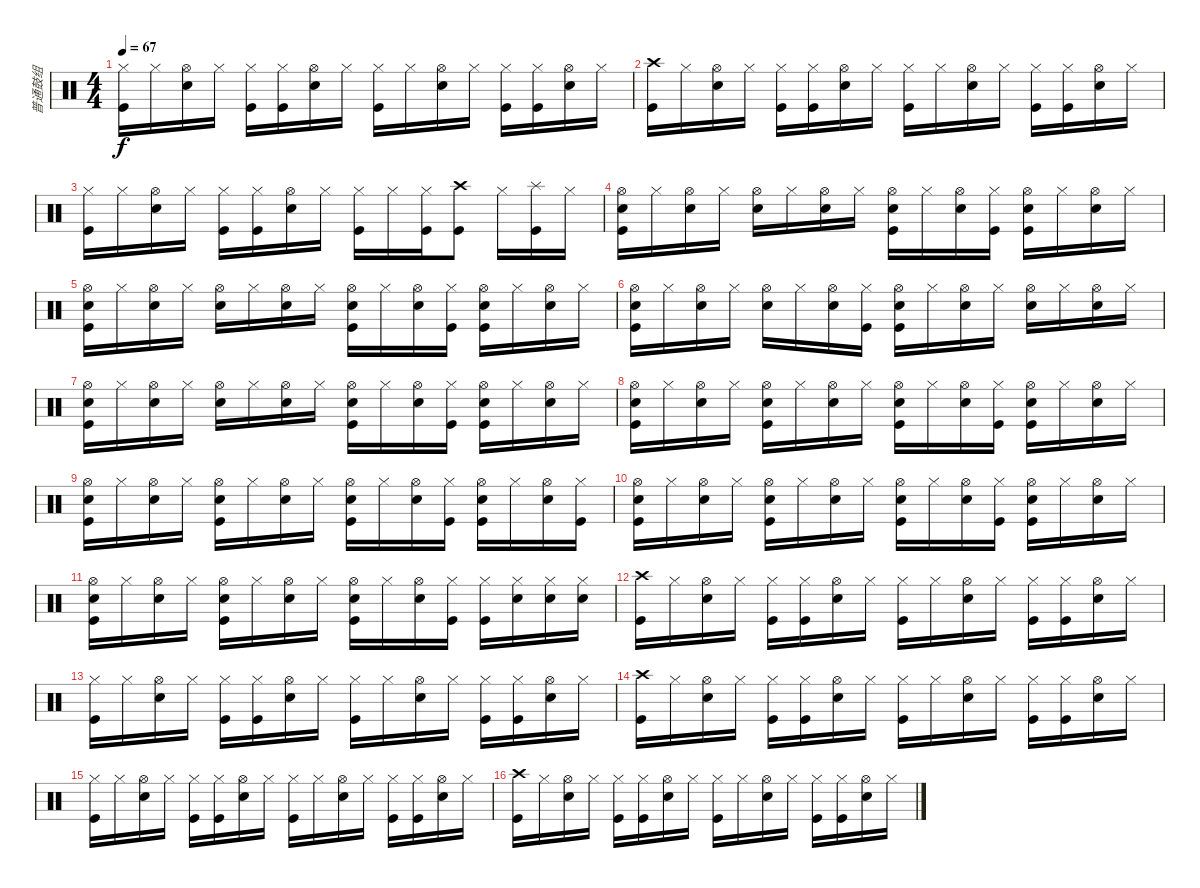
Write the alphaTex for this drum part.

\track ("普通鼓组" "普通鼓组") {instrument percussion}
\staff {score}
\articulation defaults
\ts (4 4)
\tempo 67
\clef neutral
\ks c
("Hi-Hat (closed)" "Kick (hit)").16{dy f} "Hi-Hat (closed)".16 ("Hi-Hat (open)" "Snare (hit) 2").16 "Hi-Hat (closed)".16 ("Hi-Hat (closed)" "Kick (hit)").16 ("Hi-Hat (closed)" "Kick (hit)").16 ("Hi-Hat (open)" "Snare (hit) 2").16 "Hi-Hat (closed)".16 ("Hi-Hat (closed)" "Kick (hit)").16 "Hi-Hat (closed)".16 ("Hi-Hat (open)" "Snare (hit) 2").16 "Hi-Hat (closed)".16 ("Hi-Hat (closed)" "Kick (hit)").16 ("Hi-Hat (closed)" "Kick (hit)").16 ("Hi-Hat (open)" "Snare (hit) 2").16 "Hi-Hat (closed)".16 |
("Crash high (hit)" "Kick (hit)").16 "Hi-Hat (closed)".16 ("Hi-Hat (open)" "Snare (hit) 2").16 "Hi-Hat (closed)".16 ("Hi-Hat (closed)" "Kick (hit)").16 ("Hi-Hat (closed)" "Kick (hit)").16 ("Hi-Hat (open)" "Snare (hit) 2").16 "Hi-Hat (closed)".16 ("Hi-Hat (closed)" "Kick (hit)").16 "Hi-Hat (closed)".16 ("Hi-Hat (open)" "Snare (hit) 2").16 "Hi-Hat (closed)".16 ("Hi-Hat (closed)" "Kick (hit)").16 ("Hi-Hat (closed)" "Kick (hit)").16 ("Hi-Hat (open)" "Snare (hit) 2").16 "Hi-Hat (closed)".16 |
("Hi-Hat (closed)" "Kick (hit)").16 "Hi-Hat (closed)".16 ("Hi-Hat (open)" "Snare (hit) 2").16 "Hi-Hat (closed)".16 ("Hi-Hat (closed)" "Kick (hit)").16 ("Hi-Hat (closed)" "Kick (hit)").16 ("Hi-Hat (open)" "Snare (hit) 2").16 "Hi-Hat (closed)".16 ("Hi-Hat (closed)" "Kick (hit)").16 "Hi-Hat (closed)".16 ("Hi-Hat (closed)" "Kick (hit)").16 ("Crash high (hit)" "Kick (hit)").8 "Hi-Hat (closed)".16 ("Splash (hit)" "Kick (hit)").16 "Hi-Hat (closed)".16 |
("Hi-Hat (open)" "Metronome (bell)" "Kick (hit)").16 "Hi-Hat (closed)".16 ("Hi-Hat (open)" "Metronome (bell)").16 "Hi-Hat (closed)".16 ("Hi-Hat (open)" "Metronome (bell)").16 "Hi-Hat (closed)".16 ("Hi-Hat (open)" "Metronome (bell)").16 "Hi-Hat (closed)".16 ("Hi-Hat (open)" "Metronome (bell)" "Kick (hit)").16 "Hi-Hat (closed)".16 ("Hi-Hat (open)" "Metronome (bell)").16 ("Hi-Hat (closed)" "Kick (hit)").16 ("Hi-Hat (open)" "Metronome (bell)" "Kick (hit)").16 "Hi-Hat (closed)".16 ("Hi-Hat (open)" "Metronome (bell)").16 "Hi-Hat (closed)".16 |
("Hi-Hat (open)" "Metronome (bell)" "Kick (hit)").16 "Hi-Hat (closed)".16 ("Hi-Hat (open)" "Metronome (bell)").16 "Hi-Hat (closed)".16 ("Hi-Hat (open)" "Metronome (bell)").16 "Hi-Hat (closed)".16 ("Hi-Hat (open)" "Metronome (bell)").16 "Hi-Hat (closed)".16 ("Hi-Hat (open)" "Metronome (bell)" "Kick (hit)").16 "Hi-Hat (closed)".16 ("Hi-Hat (open)" "Metronome (bell)").16 ("Hi-Hat (closed)" "Kick (hit)").16 ("Hi-Hat (open)" "Metronome (bell)" "Kick (hit)").16 "Hi-Hat (closed)".16 ("Hi-Hat (open)" "Metronome (bell)").16 "Hi-Hat (closed)".16 |
("Hi-Hat (open)" "Metronome (bell)" "Kick (hit)").16 "Hi-Hat (closed)".16 ("Hi-Hat (open)" "Metronome (bell)").16 "Hi-Hat (closed)".16 ("Hi-Hat (open)" "Metronome (bell)").16 "Hi-Hat (closed)".16 ("Hi-Hat (open)" "Metronome (bell)").16 ("Hi-Hat (closed)" "Kick (hit)").16 ("Hi-Hat (open)" "Metronome (bell)" "Kick (hit)").16 "Hi-Hat (closed)".16 ("Hi-Hat (open)" "Metronome (bell)").16 "Hi-Hat (closed)".16 ("Hi-Hat (open)" "Metronome (bell)").16 "Hi-Hat (closed)".16 ("Hi-Hat (open)" "Metronome (bell)").16 "Hi-Hat (closed)".16 |
("Hi-Hat (open)" "Metronome (bell)" "Kick (hit)").16 "Hi-Hat (closed)".16 ("Hi-Hat (open)" "Metronome (bell)").16 "Hi-Hat (closed)".16 ("Hi-Hat (open)" "Metronome (bell)").16 "Hi-Hat (closed)".16 ("Hi-Hat (open)" "Metronome (bell)").16 "Hi-Hat (closed)".16 ("Hi-Hat (open)" "Metronome (bell)" "Kick (hit)").16 "Hi-Hat (closed)".16 ("Hi-Hat (open)" "Metronome (bell)").16 ("Hi-Hat (closed)" "Kick (hit)").16 ("Hi-Hat (open)" "Metronome (bell)" "Kick (hit)").16 "Hi-Hat (closed)".16 ("Hi-Hat (open)" "Metronome (bell)").16 "Hi-Hat (closed)".16 |
("Hi-Hat (open)" "Metronome (bell)" "Kick (hit)").16 "Hi-Hat (closed)".16 ("Hi-Hat (open)" "Metronome (bell)").16 "Hi-Hat (closed)".16 ("Hi-Hat (open)" "Metronome (bell)" "Kick (hit)").16 "Hi-Hat (closed)".16 ("Hi-Hat (open)" "Metronome (bell)").16 "Hi-Hat (closed)".16 ("Hi-Hat (open)" "Metronome (bell)" "Kick (hit)").16 "Hi-Hat (closed)".16 ("Hi-Hat (open)" "Metronome (bell)").16 ("Hi-Hat (closed)" "Kick (hit)").16 ("Hi-Hat (open)" "Metronome (bell)" "Kick (hit)").16 "Hi-Hat (closed)".16 ("Hi-Hat (open)" "Metronome (bell)").16 "Hi-Hat (closed)".16 |
("Hi-Hat (open)" "Metronome (bell)" "Kick (hit)").16 "Hi-Hat (closed)".16 ("Hi-Hat (open)" "Metronome (bell)").16 "Hi-Hat (closed)".16 ("Hi-Hat (open)" "Metronome (bell)" "Kick (hit)").16 "Hi-Hat (closed)".16 ("Hi-Hat (open)" "Metronome (bell)").16 "Hi-Hat (closed)".16 ("Hi-Hat (open)" "Metronome (bell)" "Kick (hit)").16 "Hi-Hat (closed)".16 ("Hi-Hat (open)" "Metronome (bell)").16 ("Hi-Hat (closed)" "Kick (hit)").16 ("Hi-Hat (open)" "Metronome (bell)" "Kick (hit)").16 "Hi-Hat (closed)".16 ("Hi-Hat (open)" "Metronome (bell)").16 ("Hi-Hat (closed)" "Kick (hit)").16 |
("Hi-Hat (open)" "Metronome (bell)" "Kick (hit)").16 "Hi-Hat (closed)".16 ("Hi-Hat (open)" "Metronome (bell)").16 "Hi-Hat (closed)".16 ("Hi-Hat (open)" "Metronome (bell)" "Kick (hit)").16 "Hi-Hat (closed)".16 ("Hi-Hat (open)" "Metronome (bell)").16 "Hi-Hat (closed)".16 ("Hi-Hat (open)" "Metronome (bell)" "Kick (hit)").16 "Hi-Hat (closed)".16 ("Hi-Hat (open)" "Metronome (bell)").16 ("Hi-Hat (closed)" "Kick (hit)").16 ("Hi-Hat (open)" "Metronome (bell)" "Kick (hit)").16 "Hi-Hat (closed)".16 ("Hi-Hat (open)" "Metronome (bell)").16 "Hi-Hat (closed)".16 |
("Hi-Hat (open)" "Metronome (bell)" "Kick (hit)").16 "Hi-Hat (closed)".16 ("Hi-Hat (open)" "Metronome (bell)").16 "Hi-Hat (closed)".16 ("Hi-Hat (open)" "Metronome (bell)" "Kick (hit)").16 "Hi-Hat (closed)".16 ("Hi-Hat (open)" "Metronome (bell)").16 "Hi-Hat (closed)".16 ("Hi-Hat (open)" "Metronome (bell)" "Kick (hit)").16 "Hi-Hat (closed)".16 ("Hi-Hat (open)" "Metronome (bell)").16 ("Hi-Hat (closed)" "Kick (hit)").16 ("Hi-Hat (closed)" "Kick (hit)").16 ("Hi-Hat (closed)" "Snare (hit) 2").16 ("Hi-Hat (closed)" "Snare (hit) 2").16 ("Hi-Hat (closed)" "Snare (hit) 2").16 |
("Crash high (hit)" "Kick (hit)").16 "Hi-Hat (closed)".16 ("Hi-Hat (open)" "Snare (hit) 2").16 "Hi-Hat (closed)".16 ("Hi-Hat (closed)" "Kick (hit)").16 ("Hi-Hat (closed)" "Kick (hit)").16 ("Hi-Hat (open)" "Snare (hit) 2").16 "Hi-Hat (closed)".16 ("Hi-Hat (closed)" "Kick (hit)").16 "Hi-Hat (closed)".16 ("Hi-Hat (open)" "Snare (hit) 2").16 "Hi-Hat (closed)".16 ("Hi-Hat (closed)" "Kick (hit)").16 ("Hi-Hat (closed)" "Kick (hit)").16 ("Hi-Hat (open)" "Snare (hit) 2").16 "Hi-Hat (closed)".16 |
("Hi-Hat (closed)" "Kick (hit)").16 "Hi-Hat (closed)".16 ("Hi-Hat (open)" "Snare (hit) 2").16 "Hi-Hat (closed)".16 ("Hi-Hat (closed)" "Kick (hit)").16 ("Hi-Hat (closed)" "Kick (hit)").16 ("Hi-Hat (open)" "Snare (hit) 2").16 "Hi-Hat (closed)".16 ("Hi-Hat (closed)" "Kick (hit)").16 "Hi-Hat (closed)".16 ("Hi-Hat (open)" "Snare (hit) 2").16 "Hi-Hat (closed)".16 ("Hi-Hat (closed)" "Kick (hit)").16 ("Hi-Hat (closed)" "Kick (hit)").16 ("Hi-Hat (open)" "Snare (hit) 2").16 "Hi-Hat (closed)".16 |
("Crash high (hit)" "Kick (hit)").16 "Hi-Hat (closed)".16 ("Hi-Hat (open)" "Snare (hit) 2").16 "Hi-Hat (closed)".16 ("Hi-Hat (closed)" "Kick (hit)").16 ("Hi-Hat (closed)" "Kick (hit)").16 ("Hi-Hat (open)" "Snare (hit) 2").16 "Hi-Hat (closed)".16 ("Hi-Hat (closed)" "Kick (hit)").16 "Hi-Hat (closed)".16 ("Hi-Hat (open)" "Snare (hit) 2").16 "Hi-Hat (closed)".16 ("Hi-Hat (closed)" "Kick (hit)").16 ("Hi-Hat (closed)" "Kick (hit)").16 ("Hi-Hat (open)" "Snare (hit) 2").16 "Hi-Hat (closed)".16 |
("Hi-Hat (closed)" "Kick (hit)").16 "Hi-Hat (closed)".16 ("Hi-Hat (open)" "Snare (hit) 2").16 "Hi-Hat (closed)".16 ("Hi-Hat (closed)" "Kick (hit)").16 ("Hi-Hat (closed)" "Kick (hit)").16 ("Hi-Hat (open)" "Snare (hit) 2").16 "Hi-Hat (closed)".16 ("Hi-Hat (closed)" "Kick (hit)").16 "Hi-Hat (closed)".16 ("Hi-Hat (open)" "Snare (hit) 2").16 "Hi-Hat (closed)".16 ("Hi-Hat (closed)" "Kick (hit)").16 ("Hi-Hat (closed)" "Kick (hit)").16 ("Hi-Hat (open)" "Snare (hit) 2").16 "Hi-Hat (closed)".16 |
("Crash high (hit)" "Kick (hit)").16 "Hi-Hat (closed)".16 ("Hi-Hat (open)" "Snare (hit) 2").16 "Hi-Hat (closed)".16 ("Hi-Hat (closed)" "Kick (hit)").16 ("Hi-Hat (closed)" "Kick (hit)").16 ("Hi-Hat (open)" "Snare (hit) 2").16 "Hi-Hat (closed)".16 ("Hi-Hat (closed)" "Kick (hit)").16 "Hi-Hat (closed)".16 ("Hi-Hat (open)" "Snare (hit) 2").16 "Hi-Hat (closed)".16 ("Hi-Hat (closed)" "Kick (hit)").16 ("Hi-Hat (closed)" "Kick (hit)").16 ("Hi-Hat (open)" "Snare (hit) 2").16 "Hi-Hat (closed)".16
